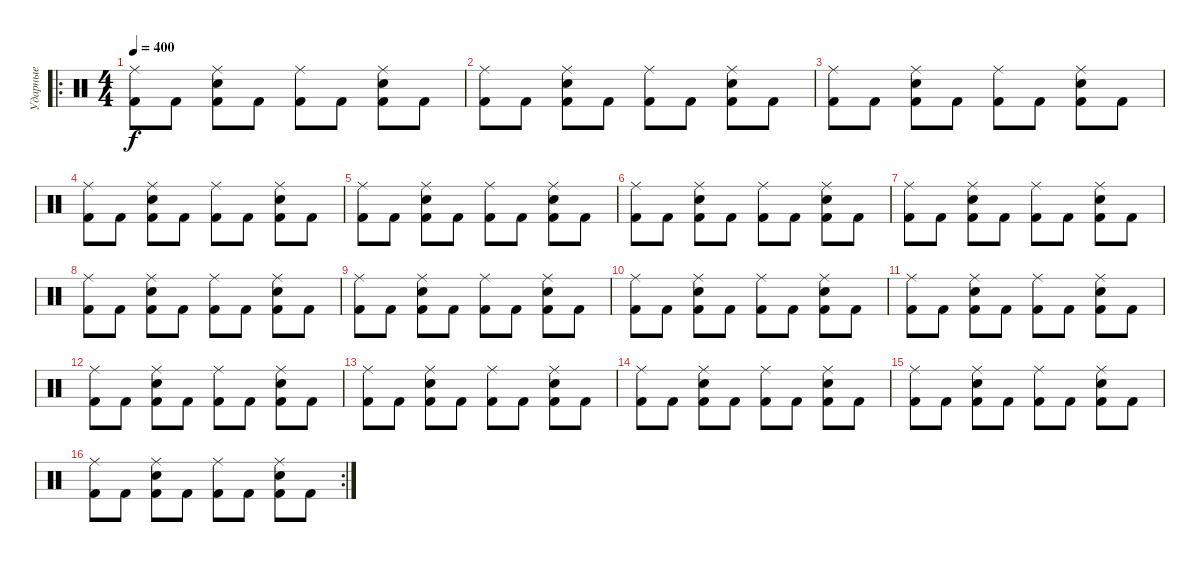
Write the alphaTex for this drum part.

\track ("Ударные" "Ударные") {instrument percussion}
\staff {score}
\articulation defaults
\ro
\ts (4 4)
\tempo 400
\clef neutral
\ks c
("Ride (middle)" "Kick (hit) 2").8{dy f} "Kick (hit) 2".8 ("Ride (middle)" "Snare (hit) 2" "Kick (hit) 2").8 "Kick (hit) 2".8 ("Ride (middle)" "Kick (hit) 2").8 "Kick (hit) 2".8 ("Ride (middle)" "Snare (hit) 2" "Kick (hit) 2").8 "Kick (hit) 2".8 |
("Ride (middle)" "Kick (hit) 2").8 "Kick (hit) 2".8 ("Ride (middle)" "Snare (hit) 2" "Kick (hit) 2").8 "Kick (hit) 2".8 ("Ride (middle)" "Kick (hit) 2").8 "Kick (hit) 2".8 ("Ride (middle)" "Snare (hit) 2" "Kick (hit) 2").8 "Kick (hit) 2".8 |
("Ride (middle)" "Kick (hit) 2").8 "Kick (hit) 2".8 ("Ride (middle)" "Snare (hit) 2" "Kick (hit) 2").8 "Kick (hit) 2".8 ("Ride (middle)" "Kick (hit) 2").8 "Kick (hit) 2".8 ("Ride (middle)" "Snare (hit) 2" "Kick (hit) 2").8 "Kick (hit) 2".8 |
("Ride (middle)" "Kick (hit) 2").8 "Kick (hit) 2".8 ("Ride (middle)" "Snare (hit) 2" "Kick (hit) 2").8 "Kick (hit) 2".8 ("Ride (middle)" "Kick (hit) 2").8 "Kick (hit) 2".8 ("Ride (middle)" "Snare (hit) 2" "Kick (hit) 2").8 "Kick (hit) 2".8 |
("Ride (middle)" "Kick (hit) 2").8 "Kick (hit) 2".8 ("Ride (middle)" "Snare (hit) 2" "Kick (hit) 2").8 "Kick (hit) 2".8 ("Ride (middle)" "Kick (hit) 2").8 "Kick (hit) 2".8 ("Ride (middle)" "Snare (hit) 2" "Kick (hit) 2").8 "Kick (hit) 2".8 |
("Ride (middle)" "Kick (hit) 2").8 "Kick (hit) 2".8 ("Ride (middle)" "Snare (hit) 2" "Kick (hit) 2").8 "Kick (hit) 2".8 ("Ride (middle)" "Kick (hit) 2").8 "Kick (hit) 2".8 ("Ride (middle)" "Snare (hit) 2" "Kick (hit) 2").8 "Kick (hit) 2".8 |
("Ride (middle)" "Kick (hit) 2").8 "Kick (hit) 2".8 ("Ride (middle)" "Snare (hit) 2" "Kick (hit) 2").8 "Kick (hit) 2".8 ("Ride (middle)" "Kick (hit) 2").8 "Kick (hit) 2".8 ("Ride (middle)" "Snare (hit) 2" "Kick (hit) 2").8 "Kick (hit) 2".8 |
("Ride (middle)" "Kick (hit) 2").8 "Kick (hit) 2".8 ("Ride (middle)" "Snare (hit) 2" "Kick (hit) 2").8 "Kick (hit) 2".8 ("Ride (middle)" "Kick (hit) 2").8 "Kick (hit) 2".8 ("Ride (middle)" "Snare (hit) 2" "Kick (hit) 2").8 "Kick (hit) 2".8 |
("Ride (middle)" "Kick (hit) 2").8 "Kick (hit) 2".8 ("Ride (middle)" "Snare (hit) 2" "Kick (hit) 2").8 "Kick (hit) 2".8 ("Ride (middle)" "Kick (hit) 2").8 "Kick (hit) 2".8 ("Ride (middle)" "Snare (hit) 2" "Kick (hit) 2").8 "Kick (hit) 2".8 |
("Ride (middle)" "Kick (hit) 2").8 "Kick (hit) 2".8 ("Ride (middle)" "Snare (hit) 2" "Kick (hit) 2").8 "Kick (hit) 2".8 ("Ride (middle)" "Kick (hit) 2").8 "Kick (hit) 2".8 ("Ride (middle)" "Snare (hit) 2" "Kick (hit) 2").8 "Kick (hit) 2".8 |
("Ride (middle)" "Kick (hit) 2").8 "Kick (hit) 2".8 ("Ride (middle)" "Snare (hit) 2" "Kick (hit) 2").8 "Kick (hit) 2".8 ("Ride (middle)" "Kick (hit) 2").8 "Kick (hit) 2".8 ("Ride (middle)" "Snare (hit) 2" "Kick (hit) 2").8 "Kick (hit) 2".8 |
("Ride (middle)" "Kick (hit) 2").8 "Kick (hit) 2".8 ("Ride (middle)" "Snare (hit) 2" "Kick (hit) 2").8 "Kick (hit) 2".8 ("Ride (middle)" "Kick (hit) 2").8 "Kick (hit) 2".8 ("Ride (middle)" "Snare (hit) 2" "Kick (hit) 2").8 "Kick (hit) 2".8 |
("Ride (middle)" "Kick (hit) 2").8 "Kick (hit) 2".8 ("Ride (middle)" "Snare (hit) 2" "Kick (hit) 2").8 "Kick (hit) 2".8 ("Ride (middle)" "Kick (hit) 2").8 "Kick (hit) 2".8 ("Ride (middle)" "Snare (hit) 2" "Kick (hit) 2").8 "Kick (hit) 2".8 |
("Ride (middle)" "Kick (hit) 2").8 "Kick (hit) 2".8 ("Ride (middle)" "Snare (hit) 2" "Kick (hit) 2").8 "Kick (hit) 2".8 ("Ride (middle)" "Kick (hit) 2").8 "Kick (hit) 2".8 ("Ride (middle)" "Snare (hit) 2" "Kick (hit) 2").8 "Kick (hit) 2".8 |
("Ride (middle)" "Kick (hit) 2").8 "Kick (hit) 2".8 ("Ride (middle)" "Snare (hit) 2" "Kick (hit) 2").8 "Kick (hit) 2".8 ("Ride (middle)" "Kick (hit) 2").8 "Kick (hit) 2".8 ("Ride (middle)" "Snare (hit) 2" "Kick (hit) 2").8 "Kick (hit) 2".8 |
\rc 2
("Ride (middle)" "Kick (hit) 2").8 "Kick (hit) 2".8 ("Ride (middle)" "Snare (hit) 2" "Kick (hit) 2").8 "Kick (hit) 2".8 ("Ride (middle)" "Kick (hit) 2").8 "Kick (hit) 2".8 ("Ride (middle)" "Snare (hit) 2" "Kick (hit) 2").8 "Kick (hit) 2".8
